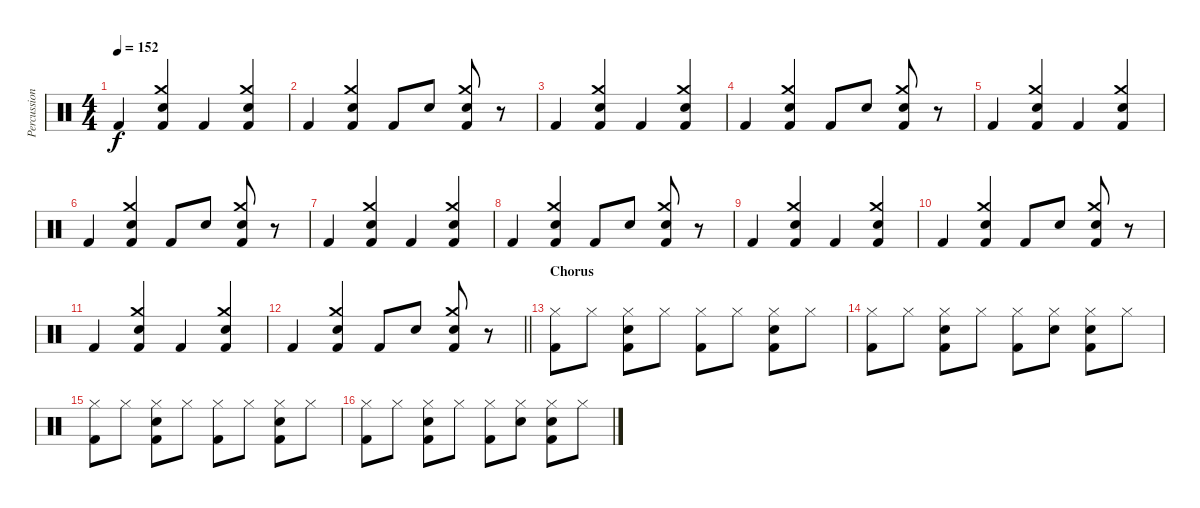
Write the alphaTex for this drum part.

\track ("Percussion" "Percussion") {instrument percussion}
\staff {score}
\articulation defaults
\ts (4 4)
\tempo 152
\clef neutral
\ks c "Kick (hit) 2".4{dy f}
("Crash medium (hit)" "Electric Snare (hit)" "Kick (hit) 2").4 "Kick (hit) 2".4 ("Crash medium (hit)" "Electric Snare (hit)" "Kick (hit) 2").4 |
"Kick (hit) 2".4 ("Crash medium (hit)" "Electric Snare (hit)" "Kick (hit) 2").4 "Kick (hit) 2".8 "Electric Snare (hit)".8 ("Crash medium (hit)" "Electric Snare (hit)" "Kick (hit) 2").8 r.8 |
"Kick (hit) 2".4 ("Crash medium (hit)" "Electric Snare (hit)" "Kick (hit) 2").4 "Kick (hit) 2".4 ("Crash medium (hit)" "Electric Snare (hit)" "Kick (hit) 2").4 |
"Kick (hit) 2".4 ("Crash medium (hit)" "Electric Snare (hit)" "Kick (hit) 2").4 "Kick (hit) 2".8 "Electric Snare (hit)".8 ("Crash medium (hit)" "Electric Snare (hit)" "Kick (hit) 2").8 r.8 |
"Kick (hit) 2".4 ("Crash medium (hit)" "Electric Snare (hit)" "Kick (hit) 2").4 "Kick (hit) 2".4 ("Crash medium (hit)" "Electric Snare (hit)" "Kick (hit) 2").4 |
"Kick (hit) 2".4 ("Crash medium (hit)" "Electric Snare (hit)" "Kick (hit) 2").4 "Kick (hit) 2".8 "Electric Snare (hit)".8 ("Crash medium (hit)" "Electric Snare (hit)" "Kick (hit) 2").8 r.8 |
"Kick (hit) 2".4 ("Crash medium (hit)" "Electric Snare (hit)" "Kick (hit) 2").4 "Kick (hit) 2".4 ("Crash medium (hit)" "Electric Snare (hit)" "Kick (hit) 2").4 |
"Kick (hit) 2".4 ("Crash medium (hit)" "Electric Snare (hit)" "Kick (hit) 2").4 "Kick (hit) 2".8 "Electric Snare (hit)".8 ("Crash medium (hit)" "Electric Snare (hit)" "Kick (hit) 2").8 r.8 |
"Kick (hit) 2".4 ("Crash medium (hit)" "Electric Snare (hit)" "Kick (hit) 2").4 "Kick (hit) 2".4 ("Crash medium (hit)" "Electric Snare (hit)" "Kick (hit) 2").4 |
"Kick (hit) 2".4 ("Crash medium (hit)" "Electric Snare (hit)" "Kick (hit) 2").4 "Kick (hit) 2".8 "Electric Snare (hit)".8 ("Crash medium (hit)" "Electric Snare (hit)" "Kick (hit) 2").8 r.8 |
"Kick (hit) 2".4 ("Crash medium (hit)" "Electric Snare (hit)" "Kick (hit) 2").4 "Kick (hit) 2".4 ("Crash medium (hit)" "Electric Snare (hit)" "Kick (hit) 2").4 |
\barLineRight lightlight "Kick (hit) 2".4
("Crash medium (hit)" "Electric Snare (hit)" "Kick (hit) 2").4 "Kick (hit) 2".8 "Electric Snare (hit)".8 ("Crash medium (hit)" "Electric Snare (hit)" "Kick (hit) 2").8 r.8 |
\section ("" "Chorus")
("Hi-Hat (closed)" "Kick (hit) 2").8 "Hi-Hat (closed)".8 ("Hi-Hat (closed)" "Electric Snare (hit)" "Kick (hit) 2").8 "Hi-Hat (closed)".8 ("Hi-Hat (closed)" "Kick (hit) 2").8 "Hi-Hat (closed)".8 ("Hi-Hat (closed)" "Electric Snare (hit)" "Kick (hit) 2").8 "Hi-Hat (closed)".8 |
("Hi-Hat (closed)" "Kick (hit) 2").8 "Hi-Hat (closed)".8 ("Hi-Hat (closed)" "Electric Snare (hit)" "Kick (hit) 2").8 "Hi-Hat (closed)".8 ("Hi-Hat (closed)" "Kick (hit) 2").8 ("Hi-Hat (closed)" "Electric Snare (hit)").8 ("Hi-Hat (closed)" "Electric Snare (hit)" "Kick (hit) 2").8 "Hi-Hat (closed)".8 |
("Hi-Hat (closed)" "Kick (hit) 2").8 "Hi-Hat (closed)".8 ("Hi-Hat (closed)" "Electric Snare (hit)" "Kick (hit) 2").8 "Hi-Hat (closed)".8 ("Hi-Hat (closed)" "Kick (hit) 2").8 "Hi-Hat (closed)".8 ("Hi-Hat (closed)" "Electric Snare (hit)" "Kick (hit) 2").8 "Hi-Hat (closed)".8 |
("Hi-Hat (closed)" "Kick (hit) 2").8 "Hi-Hat (closed)".8 ("Hi-Hat (closed)" "Electric Snare (hit)" "Kick (hit) 2").8 "Hi-Hat (closed)".8 ("Hi-Hat (closed)" "Kick (hit) 2").8 ("Hi-Hat (closed)" "Electric Snare (hit)").8 ("Hi-Hat (closed)" "Electric Snare (hit)" "Kick (hit) 2").8 "Hi-Hat (closed)".8
